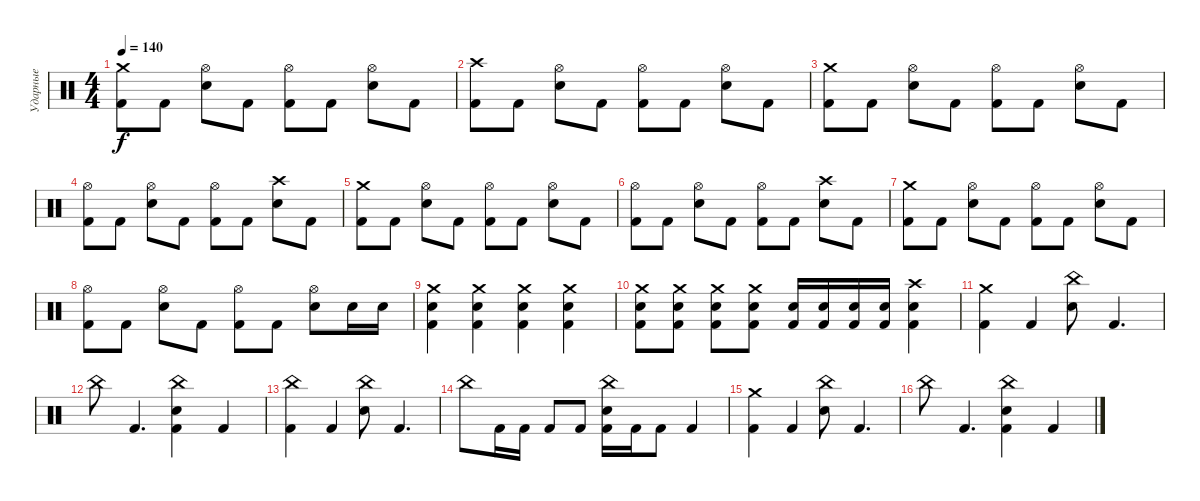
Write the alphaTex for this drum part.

\track ("Ударные" "Ударные") {instrument percussion}
\staff {score}
\articulation defaults
\ts (4 4)
\tempo 140
\clef neutral
\ks c
("Crash medium (hit)" "Kick (hit) 2").8{dy f} "Kick (hit) 2".8 ("Hi-Hat (open)" "Electric Snare (hit)").8 "Kick (hit) 2".8 ("Hi-Hat (open)" "Kick (hit) 2").8 "Kick (hit) 2".8 ("Hi-Hat (open)" "Electric Snare (hit)").8 "Kick (hit) 2".8 |
("Crash high (hit)" "Kick (hit) 2").8 "Kick (hit) 2".8 ("Hi-Hat (open)" "Electric Snare (hit)").8 "Kick (hit) 2".8 ("Hi-Hat (open)" "Kick (hit) 2").8 "Kick (hit) 2".8 ("Hi-Hat (open)" "Electric Snare (hit)").8 "Kick (hit) 2".8 |
("Crash medium (hit)" "Kick (hit) 2").8 "Kick (hit) 2".8 ("Hi-Hat (open)" "Electric Snare (hit)").8 "Kick (hit) 2".8 ("Hi-Hat (open)" "Kick (hit) 2").8 "Kick (hit) 2".8 ("Hi-Hat (open)" "Electric Snare (hit)").8 "Kick (hit) 2".8 |
("Hi-Hat (open)" "Kick (hit) 2").8 "Kick (hit) 2".8 ("Hi-Hat (open)" "Electric Snare (hit)").8 "Kick (hit) 2".8 ("Hi-Hat (open)" "Kick (hit) 2").8 "Kick (hit) 2".8 ("Crash high (hit)" "Electric Snare (hit)").8 "Kick (hit) 2".8 |
("Crash medium (hit)" "Kick (hit) 2").8 "Kick (hit) 2".8 ("Hi-Hat (open)" "Electric Snare (hit)").8 "Kick (hit) 2".8 ("Hi-Hat (open)" "Kick (hit) 2").8 "Kick (hit) 2".8 ("Hi-Hat (open)" "Electric Snare (hit)").8 "Kick (hit) 2".8 |
("Hi-Hat (open)" "Kick (hit) 2").8 "Kick (hit) 2".8 ("Hi-Hat (open)" "Electric Snare (hit)").8 "Kick (hit) 2".8 ("Hi-Hat (open)" "Kick (hit) 2").8 "Kick (hit) 2".8 ("Crash high (hit)" "Electric Snare (hit)").8 "Kick (hit) 2".8 |
("Crash medium (hit)" "Kick (hit) 2").8 "Kick (hit) 2".8 ("Hi-Hat (open)" "Electric Snare (hit)").8 "Kick (hit) 2".8 ("Hi-Hat (open)" "Kick (hit) 2").8 "Kick (hit) 2".8 ("Hi-Hat (open)" "Electric Snare (hit)").8 "Kick (hit) 2".8 |
("Hi-Hat (open)" "Kick (hit) 2").8 "Kick (hit) 2".8 ("Hi-Hat (open)" "Electric Snare (hit)").8 "Kick (hit) 2".8 ("Hi-Hat (open)" "Kick (hit) 2").8 "Kick (hit) 2".8 ("Hi-Hat (open)" "Electric Snare (hit)").8 "Electric Snare (hit)".16 "Electric Snare (hit)".16 |
("Crash medium (hit)" "Electric Snare (hit)" "Kick (hit) 2").4 ("Crash medium (hit)" "Electric Snare (hit)" "Kick (hit) 2").4 ("Crash medium (hit)" "Electric Snare (hit)" "Kick (hit) 2").4 ("Crash medium (hit)" "Electric Snare (hit)" "Kick (hit) 2").4 |
("Crash medium (hit)" "Electric Snare (hit)" "Kick (hit) 2").8 ("Crash medium (hit)" "Electric Snare (hit)" "Kick (hit) 2").8 ("Crash medium (hit)" "Electric Snare (hit)" "Kick (hit) 2").8 ("Crash medium (hit)" "Electric Snare (hit)" "Kick (hit) 2").8 ("Electric Snare (hit)" "Kick (hit) 2").16 ("Electric Snare (hit)" "Kick (hit) 2").16 ("Electric Snare (hit)" "Kick (hit) 2").16 ("Electric Snare (hit)" "Kick (hit) 2").16 ("Crash high (hit)" "Electric Snare (hit)" "Kick (hit) 2").4 |
("Crash medium (hit)" "Kick (hit) 2").4 "Kick (hit) 2".4 ("China (hit)" "Electric Snare (hit)").8 "Kick (hit) 2".4{d} |
"China (hit)".8 "Kick (hit) 2".4{d} ("China (hit)" "Electric Snare (hit)" "Kick (hit) 2").4 "Kick (hit) 2".4 |
("China (hit)" "Kick (hit) 2").4 "Kick (hit) 2".4 ("China (hit)" "Electric Snare (hit)").8 "Kick (hit) 2".4{d} |
"China (hit)".8 "Kick (hit) 2".16 "Kick (hit) 2".16 "Kick (hit) 2".8 "Kick (hit) 2".8 ("China (hit)" "Electric Snare (hit)" "Kick (hit) 2").16 "Kick (hit) 2".16 "Kick (hit) 2".8 "Kick (hit) 2".4 |
("Crash medium (hit)" "Kick (hit) 2").4 "Kick (hit) 2".4 ("China (hit)" "Electric Snare (hit)").8 "Kick (hit) 2".4{d} |
"China (hit)".8 "Kick (hit) 2".4{d} ("China (hit)" "Electric Snare (hit)" "Kick (hit) 2").4 "Kick (hit) 2".4
